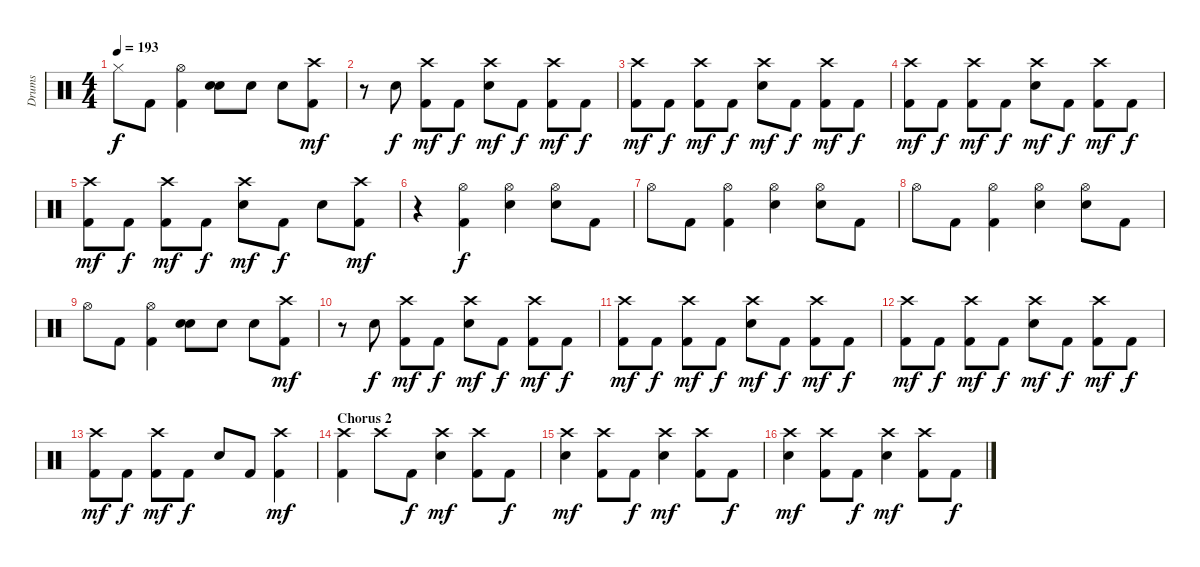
\track ("Drums" "Drums") {instrument percussion}
\staff {score}
\articulation defaults
\ts (4 4)
\tempo 193
\clef neutral
\ks c "Hi-Hat (closed)".8{dy f} "Kick (hit) 2".8
("Hi-Hat (open)" "Kick (hit) 2").4 ("Electric Snare (hit)" "Electric Snare (hit)").8{bd 120} "Electric Snare (hit)".8 "Electric Snare (hit)".8 ("Crash high (hit)" "Kick (hit) 2").8{dy mf} |
r.8 "Electric Snare (hit)".8{dy f} ("Crash high (hit)" "Kick (hit) 2").8{dy mf} "Kick (hit) 2".8{dy f} ("Crash high (hit)" "Electric Snare (hit)").8{dy mf} "Kick (hit) 2".8{dy f} ("Crash high (hit)" "Kick (hit) 2").8{dy mf} "Kick (hit) 2".8{dy f} |
("Crash high (hit)" "Kick (hit) 2").8{dy mf} "Kick (hit) 2".8{dy f} ("Crash high (hit)" "Kick (hit) 2").8{dy mf} "Kick (hit) 2".8{dy f} ("Crash high (hit)" "Electric Snare (hit)").8{dy mf} "Kick (hit) 2".8{dy f} ("Crash high (hit)" "Kick (hit) 2").8{dy mf} "Kick (hit) 2".8{dy f} |
("Crash high (hit)" "Kick (hit) 2").8{dy mf} "Kick (hit) 2".8{dy f} ("Crash high (hit)" "Kick (hit) 2").8{dy mf} "Kick (hit) 2".8{dy f} ("Crash high (hit)" "Electric Snare (hit)").8{dy mf} "Kick (hit) 2".8{dy f} ("Crash high (hit)" "Kick (hit) 2").8{dy mf} "Kick (hit) 2".8{dy f} |
("Crash high (hit)" "Kick (hit) 2").8{dy mf} "Kick (hit) 2".8{dy f} ("Crash high (hit)" "Kick (hit) 2").8{dy mf} "Kick (hit) 2".8{dy f} ("Crash high (hit)" "Electric Snare (hit)").8{dy mf} "Kick (hit) 2".8{dy f} "Electric Snare (hit)".8 ("Crash high (hit)" "Kick (hit) 2").8{dy mf} |
r.4 ("Hi-Hat (open)" "Kick (hit) 2").4{dy f} ("Hi-Hat (open)" "Electric Snare (hit)").4 ("Hi-Hat (open)" "Electric Snare (hit)").8 "Kick (hit) 2".8 |
"Hi-Hat (open)".8 "Kick (hit) 2".8 ("Hi-Hat (open)" "Kick (hit) 2").4 ("Hi-Hat (open)" "Electric Snare (hit)").4 ("Hi-Hat (open)" "Electric Snare (hit)").8 "Kick (hit) 2".8 |
"Hi-Hat (open)".8 "Kick (hit) 2".8 ("Hi-Hat (open)" "Kick (hit) 2").4 ("Hi-Hat (open)" "Electric Snare (hit)").4 ("Hi-Hat (open)" "Electric Snare (hit)").8 "Kick (hit) 2".8 |
"Hi-Hat (open)".8 "Kick (hit) 2".8 ("Hi-Hat (open)" "Kick (hit) 2").4 ("Electric Snare (hit)" "Electric Snare (hit)").8{bd 120} "Electric Snare (hit)".8 "Electric Snare (hit)".8 ("Crash high (hit)" "Kick (hit) 2").8{dy mf} |
r.8 "Electric Snare (hit)".8{dy f} ("Crash high (hit)" "Kick (hit) 2").8{dy mf} "Kick (hit) 2".8{dy f} ("Crash high (hit)" "Electric Snare (hit)").8{dy mf} "Kick (hit) 2".8{dy f} ("Crash high (hit)" "Kick (hit) 2").8{dy mf} "Kick (hit) 2".8{dy f} |
("Crash high (hit)" "Kick (hit) 2").8{dy mf} "Kick (hit) 2".8{dy f} ("Crash high (hit)" "Kick (hit) 2").8{dy mf} "Kick (hit) 2".8{dy f} ("Crash high (hit)" "Electric Snare (hit)").8{dy mf} "Kick (hit) 2".8{dy f} ("Crash high (hit)" "Kick (hit) 2").8{dy mf} "Kick (hit) 2".8{dy f} |
("Crash high (hit)" "Kick (hit) 2").8{dy mf} "Kick (hit) 2".8{dy f} ("Crash high (hit)" "Kick (hit) 2").8{dy mf} "Kick (hit) 2".8{dy f} ("Crash high (hit)" "Electric Snare (hit)").8{dy mf} "Kick (hit) 2".8{dy f} ("Crash high (hit)" "Kick (hit) 2").8{dy mf} "Kick (hit) 2".8{dy f} |
("Crash high (hit)" "Kick (hit) 2").8{dy mf} "Kick (hit) 2".8{dy f} ("Crash high (hit)" "Kick (hit) 2").8{dy mf} "Kick (hit) 2".8{dy f} "Electric Snare (hit)".8 "Kick (hit) 2".8 ("Crash high (hit)" "Kick (hit) 2").4{dy mf} |
\section ("" "Chorus 2")
("Crash high (hit)" "Kick (hit) 2").4 "Crash high (hit)".8 "Kick (hit) 2".8{dy f} ("Crash high (hit)" "Electric Snare (hit)").4{dy mf} ("Crash high (hit)" "Kick (hit) 2").8 "Kick (hit) 2".8{dy f} |
("Crash high (hit)" "Electric Snare (hit)").4{dy mf} ("Crash high (hit)" "Kick (hit) 2").8 "Kick (hit) 2".8{dy f} ("Crash high (hit)" "Electric Snare (hit)").4{dy mf} ("Crash high (hit)" "Kick (hit) 2").8 "Kick (hit) 2".8{dy f} |
("Crash high (hit)" "Electric Snare (hit)").4{dy mf} ("Crash high (hit)" "Kick (hit) 2").8 "Kick (hit) 2".8{dy f} ("Crash high (hit)" "Electric Snare (hit)").4{dy mf} ("Crash high (hit)" "Kick (hit) 2").8 "Kick (hit) 2".8{dy f}
